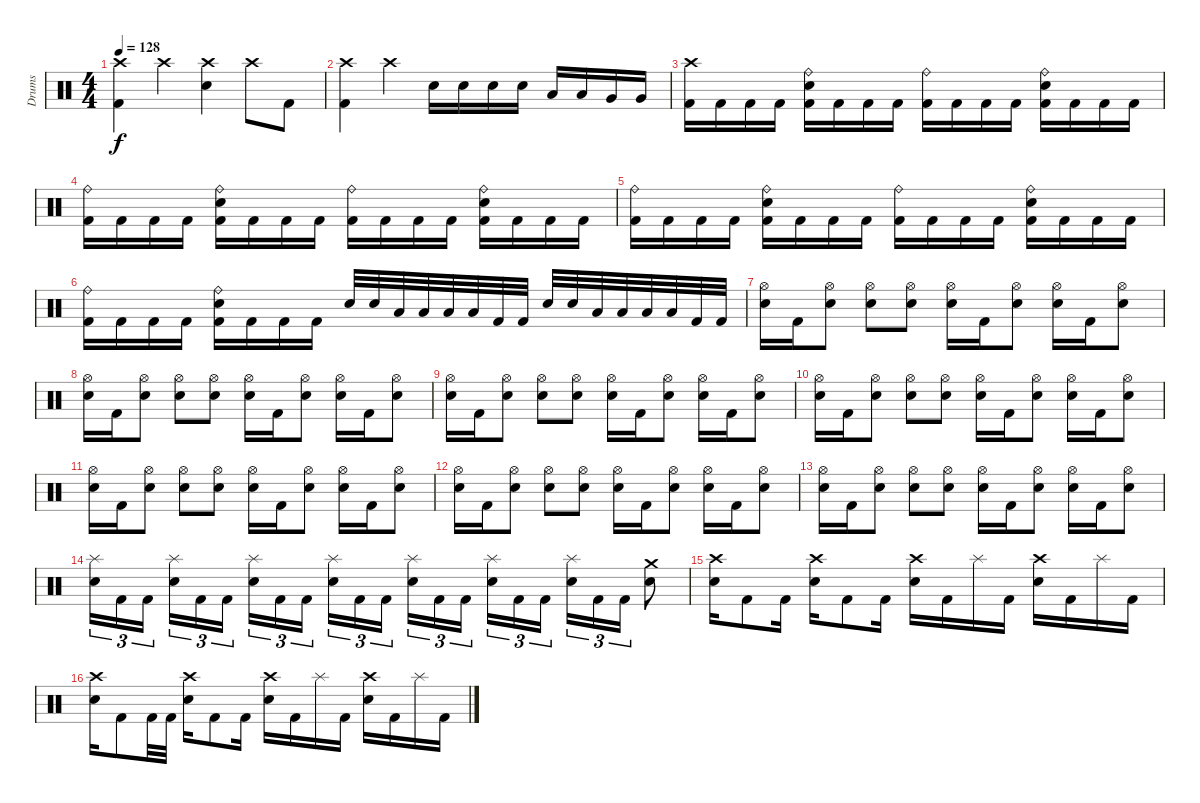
\track ("Drums" "Drums") {instrument percussion}
\staff {score}
\articulation defaults
\ts (4 4)
\tempo 128
\clef neutral
\ks c
("Crash high (hit)" "Kick (hit) 2").4{dy f} "Crash high (hit)".4 ("Crash high (hit)" "Electric Snare (hit)").4 "Crash high (hit)".8 "Kick (hit) 2".8 |
("Crash high (hit)" "Kick (hit) 2").4 "Crash high (hit)".4 "Electric Snare (hit)".16 "Electric Snare (hit)".16 "Electric Snare (hit)".16 "Electric Snare (hit)".16 "Low Tom (hit)".16 "Low Tom (hit)".16 "Very Low Tom (hit)".16 "Very Low Tom (hit)".16 |
("Crash high (hit)" "Kick (hit) 2").16 "Kick (hit) 2".16 "Kick (hit) 2".16 "Kick (hit) 2".16 ("Ride (bell)" "Electric Snare (hit)" "Kick (hit) 2").16 "Kick (hit) 2".16 "Kick (hit) 2".16 "Kick (hit) 2".16 ("Ride (bell)" "Kick (hit) 2").16 "Kick (hit) 2".16 "Kick (hit) 2".16 "Kick (hit) 2".16 ("Ride (bell)" "Electric Snare (hit)" "Kick (hit) 2").16 "Kick (hit) 2".16 "Kick (hit) 2".16 "Kick (hit) 2".16 |
("Ride (bell)" "Kick (hit) 2").16 "Kick (hit) 2".16 "Kick (hit) 2".16 "Kick (hit) 2".16 ("Ride (bell)" "Electric Snare (hit)" "Kick (hit) 2").16 "Kick (hit) 2".16 "Kick (hit) 2".16 "Kick (hit) 2".16 ("Ride (bell)" "Kick (hit) 2").16 "Kick (hit) 2".16 "Kick (hit) 2".16 "Kick (hit) 2".16 ("Ride (bell)" "Electric Snare (hit)" "Kick (hit) 2").16 "Kick (hit) 2".16 "Kick (hit) 2".16 "Kick (hit) 2".16 |
("Ride (bell)" "Kick (hit) 2").16 "Kick (hit) 2".16 "Kick (hit) 2".16 "Kick (hit) 2".16 ("Ride (bell)" "Electric Snare (hit)" "Kick (hit) 2").16 "Kick (hit) 2".16 "Kick (hit) 2".16 "Kick (hit) 2".16 ("Ride (bell)" "Kick (hit) 2").16 "Kick (hit) 2".16 "Kick (hit) 2".16 "Kick (hit) 2".16 ("Ride (bell)" "Electric Snare (hit)" "Kick (hit) 2").16 "Kick (hit) 2".16 "Kick (hit) 2".16 "Kick (hit) 2".16 |
("Ride (bell)" "Kick (hit) 2").16 "Kick (hit) 2".16 "Kick (hit) 2".16 "Kick (hit) 2".16 ("Ride (bell)" "Electric Snare (hit)" "Kick (hit) 2").16 "Kick (hit) 2".16 "Kick (hit) 2".16 "Kick (hit) 2".16 "Electric Snare (hit)".32 "Electric Snare (hit)".32 "Low Tom (hit)".32 "Low Tom (hit)".32 "Low Tom (hit)".32 "Low Tom (hit)".32 "Kick (hit) 2".32 "Kick (hit) 2".32 "Electric Snare (hit)".32 "Electric Snare (hit)".32 "Low Tom (hit)".32 "Low Tom (hit)".32 "Low Tom (hit)".32 "Low Tom (hit)".32 "Kick (hit) 2".32 "Kick (hit) 2".32 |
("Hi-Hat (open)" "Electric Snare (hit)").16 "Kick (hit) 2".16 ("Hi-Hat (open)" "Electric Snare (hit)").8 ("Hi-Hat (open)" "Electric Snare (hit)").8 ("Hi-Hat (open)" "Electric Snare (hit)").8 ("Hi-Hat (open)" "Electric Snare (hit)").16 "Kick (hit) 2".16 ("Hi-Hat (open)" "Electric Snare (hit)").8 ("Hi-Hat (open)" "Electric Snare (hit)").16 "Kick (hit) 2".16 ("Hi-Hat (open)" "Electric Snare (hit)").8 |
("Hi-Hat (open)" "Electric Snare (hit)").16 "Kick (hit) 2".16 ("Hi-Hat (open)" "Electric Snare (hit)").8 ("Hi-Hat (open)" "Electric Snare (hit)").8 ("Hi-Hat (open)" "Electric Snare (hit)").8 ("Hi-Hat (open)" "Electric Snare (hit)").16 "Kick (hit) 2".16 ("Hi-Hat (open)" "Electric Snare (hit)").8 ("Hi-Hat (open)" "Electric Snare (hit)").16 "Kick (hit) 2".16 ("Hi-Hat (open)" "Electric Snare (hit)").8 |
("Hi-Hat (open)" "Electric Snare (hit)").16 "Kick (hit) 2".16 ("Hi-Hat (open)" "Electric Snare (hit)").8 ("Hi-Hat (open)" "Electric Snare (hit)").8 ("Hi-Hat (open)" "Electric Snare (hit)").8 ("Hi-Hat (open)" "Electric Snare (hit)").16 "Kick (hit) 2".16 ("Hi-Hat (open)" "Electric Snare (hit)").8 ("Hi-Hat (open)" "Electric Snare (hit)").16 "Kick (hit) 2".16 ("Hi-Hat (open)" "Electric Snare (hit)").8 |
("Hi-Hat (open)" "Electric Snare (hit)").16 "Kick (hit) 2".16 ("Hi-Hat (open)" "Electric Snare (hit)").8 ("Hi-Hat (open)" "Electric Snare (hit)").8 ("Hi-Hat (open)" "Electric Snare (hit)").8 ("Hi-Hat (open)" "Electric Snare (hit)").16 "Kick (hit) 2".16 ("Hi-Hat (open)" "Electric Snare (hit)").8 ("Hi-Hat (open)" "Electric Snare (hit)").16 "Kick (hit) 2".16 ("Hi-Hat (open)" "Electric Snare (hit)").8 |
("Hi-Hat (open)" "Electric Snare (hit)").16 "Kick (hit) 2".16 ("Hi-Hat (open)" "Electric Snare (hit)").8 ("Hi-Hat (open)" "Electric Snare (hit)").8 ("Hi-Hat (open)" "Electric Snare (hit)").8 ("Hi-Hat (open)" "Electric Snare (hit)").16 "Kick (hit) 2".16 ("Hi-Hat (open)" "Electric Snare (hit)").8 ("Hi-Hat (open)" "Electric Snare (hit)").16 "Kick (hit) 2".16 ("Hi-Hat (open)" "Electric Snare (hit)").8 |
("Hi-Hat (open)" "Electric Snare (hit)").16 "Kick (hit) 2".16 ("Hi-Hat (open)" "Electric Snare (hit)").8 ("Hi-Hat (open)" "Electric Snare (hit)").8 ("Hi-Hat (open)" "Electric Snare (hit)").8 ("Hi-Hat (open)" "Electric Snare (hit)").16 "Kick (hit) 2".16 ("Hi-Hat (open)" "Electric Snare (hit)").8 ("Hi-Hat (open)" "Electric Snare (hit)").16 "Kick (hit) 2".16 ("Hi-Hat (open)" "Electric Snare (hit)").8 |
("Hi-Hat (open)" "Electric Snare (hit)").16 "Kick (hit) 2".16 ("Hi-Hat (open)" "Electric Snare (hit)").8 ("Hi-Hat (open)" "Electric Snare (hit)").8 ("Hi-Hat (open)" "Electric Snare (hit)").8 ("Hi-Hat (open)" "Electric Snare (hit)").16 "Kick (hit) 2".16 ("Hi-Hat (open)" "Electric Snare (hit)").8 ("Hi-Hat (open)" "Electric Snare (hit)").16 "Kick (hit) 2".16 ("Hi-Hat (open)" "Electric Snare (hit)").8 |
("Splash (hit)" "Electric Snare (hit)").16{tu (3 2)} "Kick (hit) 2".16{tu (3 2)} "Kick (hit) 2".16{tu (3 2) beam splitsecondary} ("Splash (hit)" "Electric Snare (hit)").16{tu (3 2)} "Kick (hit) 2".16{tu (3 2)} "Kick (hit) 2".16{tu (3 2)} ("Splash (hit)" "Electric Snare (hit)").16{tu (3 2)} "Kick (hit) 2".16{tu (3 2)} "Kick (hit) 2".16{tu (3 2) beam splitsecondary} ("Splash (hit)" "Electric Snare (hit)").16{tu (3 2)} "Kick (hit) 2".16{tu (3 2)} "Kick (hit) 2".16{tu (3 2)} ("Splash (hit)" "Electric Snare (hit)").16{tu (3 2)} "Kick (hit) 2".16{tu (3 2)} "Kick (hit) 2".16{tu (3 2) beam splitsecondary} ("Splash (hit)" "Electric Snare (hit)").16{tu (3 2)} "Kick (hit) 2".16{tu (3 2)} "Kick (hit) 2".16{tu (3 2)} ("Splash (hit)" "Electric Snare (hit)").16{tu (3 2)} "Kick (hit) 2".16{tu (3 2)} "Kick (hit) 2".16{tu (3 2)} ("Crash medium (hit)" "Electric Snare (hit)").8 |
("Crash high (hit)" "Electric Snare (hit)").16 "Kick (hit) 2".8 "Kick (hit) 2".16 ("Crash high (hit)" "Electric Snare (hit)").16 "Kick (hit) 2".8 "Kick (hit) 2".16 ("Crash high (hit)" "Electric Snare (hit)").16 "Kick (hit) 2".16 "Splash (hit)".16 "Kick (hit) 2".16 ("Crash high (hit)" "Electric Snare (hit)").16 "Kick (hit) 2".16 "Splash (hit)".16 "Kick (hit) 2".16 |
("Crash high (hit)" "Electric Snare (hit)").16 "Kick (hit) 2".8 "Kick (hit) 2".32 "Kick (hit) 2".32 ("Crash high (hit)" "Electric Snare (hit)").16 "Kick (hit) 2".8 "Kick (hit) 2".16 ("Crash high (hit)" "Electric Snare (hit)").16 "Kick (hit) 2".16 "Splash (hit)".16 "Kick (hit) 2".16 ("Crash high (hit)" "Electric Snare (hit)").16 "Kick (hit) 2".16 "Splash (hit)".16 "Kick (hit) 2".16
